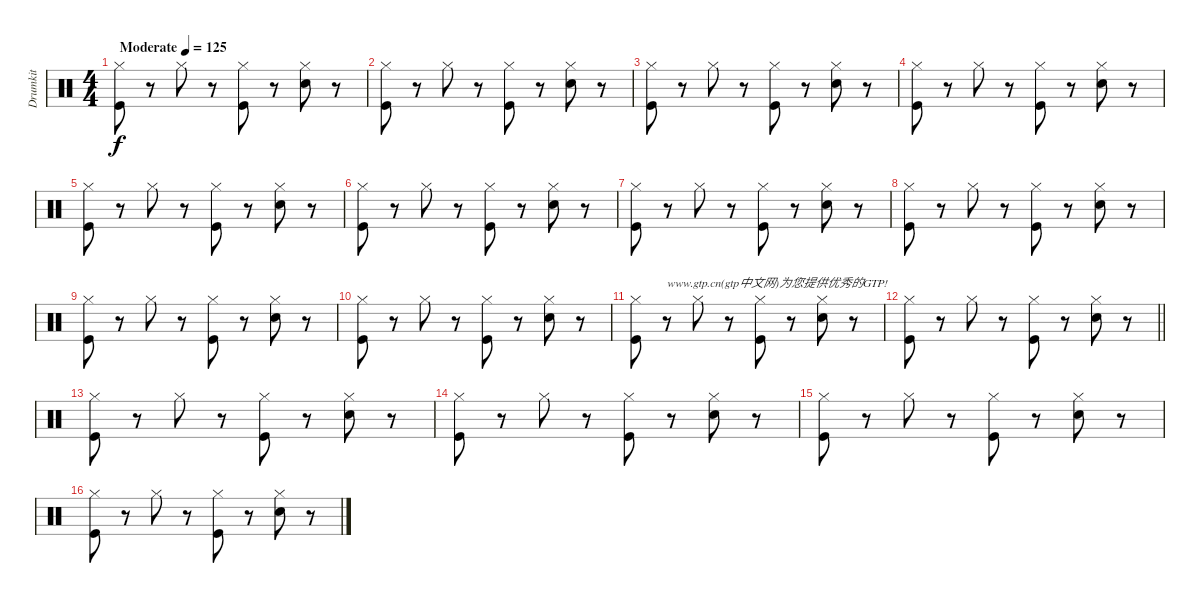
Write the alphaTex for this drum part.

\track ("Drumkit" "Drumkit") {instrument percussion}
\staff {score}
\articulation defaults
\ts (4 4)
\tempo (125 "Moderate")
\clef neutral
\ks c
("Kick (hit)" "Hi-Hat (closed)").8{dy f} r.8 "Hi-Hat (closed)".8 r.8 ("Kick (hit)" "Hi-Hat (closed)").8 r.8 ("Snare (hit) 2" "Hi-Hat (closed)").8 r.8 |
("Kick (hit)" "Hi-Hat (closed)").8 r.8 "Hi-Hat (closed)".8 r.8 ("Kick (hit)" "Hi-Hat (closed)").8 r.8 ("Snare (hit) 2" "Hi-Hat (closed)").8 r.8 |
("Kick (hit)" "Hi-Hat (closed)").8 r.8 "Hi-Hat (closed)".8 r.8 ("Kick (hit)" "Hi-Hat (closed)").8 r.8 ("Snare (hit) 2" "Hi-Hat (closed)").8 r.8 |
("Kick (hit)" "Hi-Hat (closed)").8 r.8 "Hi-Hat (closed)".8 r.8 ("Kick (hit)" "Hi-Hat (closed)").8 r.8 ("Snare (hit) 2" "Hi-Hat (closed)").8 r.8 |
("Kick (hit)" "Hi-Hat (closed)").8 r.8 "Hi-Hat (closed)".8 r.8 ("Kick (hit)" "Hi-Hat (closed)").8 r.8 ("Snare (hit) 2" "Hi-Hat (closed)").8 r.8 |
("Kick (hit)" "Hi-Hat (closed)").8 r.8 "Hi-Hat (closed)".8 r.8 ("Kick (hit)" "Hi-Hat (closed)").8 r.8 ("Snare (hit) 2" "Hi-Hat (closed)").8 r.8 |
("Kick (hit)" "Hi-Hat (closed)").8 r.8 "Hi-Hat (closed)".8 r.8 ("Kick (hit)" "Hi-Hat (closed)").8 r.8 ("Snare (hit) 2" "Hi-Hat (closed)").8 r.8 |
("Kick (hit)" "Hi-Hat (closed)").8 r.8 "Hi-Hat (closed)".8 r.8 ("Kick (hit)" "Hi-Hat (closed)").8 r.8 ("Snare (hit) 2" "Hi-Hat (closed)").8 r.8 |
("Kick (hit)" "Hi-Hat (closed)").8 r.8 "Hi-Hat (closed)".8 r.8 ("Kick (hit)" "Hi-Hat (closed)").8 r.8 ("Snare (hit) 2" "Hi-Hat (closed)").8 r.8 |
("Kick (hit)" "Hi-Hat (closed)").8 r.8 "Hi-Hat (closed)".8 r.8 ("Kick (hit)" "Hi-Hat (closed)").8 r.8 ("Snare (hit) 2" "Hi-Hat (closed)").8 r.8 |
("Kick (hit)" "Hi-Hat (closed)").8 r.8{txt "www.gtp.cn(gtp中文网)为您提供优秀的GTP!"} "Hi-Hat (closed)".8 r.8 ("Kick (hit)" "Hi-Hat (closed)").8 r.8 ("Snare (hit) 2" "Hi-Hat (closed)").8 r.8 |
\barLineRight lightlight
("Kick (hit)" "Hi-Hat (closed)").8 r.8 "Hi-Hat (closed)".8 r.8 ("Kick (hit)" "Hi-Hat (closed)").8 r.8 ("Snare (hit) 2" "Hi-Hat (closed)").8 r.8 |
("Kick (hit)" "Hi-Hat (closed)").8 r.8 "Hi-Hat (closed)".8 r.8 ("Kick (hit)" "Hi-Hat (closed)").8 r.8 ("Snare (hit) 2" "Hi-Hat (closed)").8 r.8 |
("Kick (hit)" "Hi-Hat (closed)").8 r.8 "Hi-Hat (closed)".8 r.8 ("Kick (hit)" "Hi-Hat (closed)").8 r.8 ("Snare (hit) 2" "Hi-Hat (closed)").8 r.8 |
("Kick (hit)" "Hi-Hat (closed)").8 r.8 "Hi-Hat (closed)".8 r.8 ("Kick (hit)" "Hi-Hat (closed)").8 r.8 ("Snare (hit) 2" "Hi-Hat (closed)").8 r.8 |
("Kick (hit)" "Hi-Hat (closed)").8 r.8 "Hi-Hat (closed)".8 r.8 ("Kick (hit)" "Hi-Hat (closed)").8 r.8 ("Snare (hit) 2" "Hi-Hat (closed)").8 r.8
